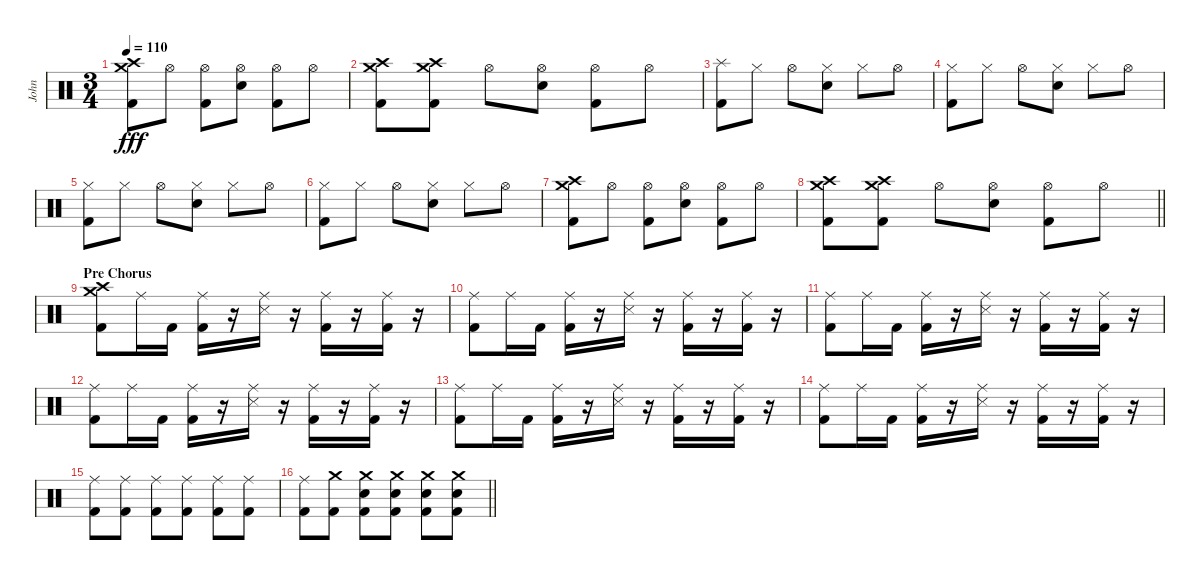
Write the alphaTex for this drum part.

\track ("John" "John") {instrument percussion}
\staff {score}
\articulation defaults
\ts (3 4)
\tempo 110
\clef neutral
\ks c
("Crash medium (hit)" "Crash high (hit)" "Kick (hit) 2").8{dy fff} "Hi-Hat (open)".8 ("Hi-Hat (open)" "Kick (hit) 2").8 ("Hi-Hat (open)" "Electric Snare (hit)").8 ("Hi-Hat (open)" "Kick (hit) 2").8 "Hi-Hat (open)".8 |
("Crash medium (hit)" "Crash high (hit)" "Kick (hit) 2").8 ("Crash medium (hit)" "Crash high (hit)" "Kick (hit) 2").8 "Hi-Hat (open)".8 ("Hi-Hat (open)" "Electric Snare (hit)").8 ("Hi-Hat (open)" "Kick (hit) 2").8 "Hi-Hat (open)".8 |
("Splash (hit)" "Kick (hit) 2").8 "Hi-Hat (closed)".8 "Hi-Hat (open)".8 ("Hi-Hat (closed)" "Electric Snare (hit)").8 "Hi-Hat (closed)".8 "Hi-Hat (open)".8 |
("Hi-Hat (closed)" "Kick (hit) 2").8 "Hi-Hat (closed)".8 "Hi-Hat (open)".8 ("Hi-Hat (closed)" "Electric Snare (hit)").8 "Hi-Hat (closed)".8 "Hi-Hat (open)".8 |
("Hi-Hat (closed)" "Kick (hit) 2").8 "Hi-Hat (closed)".8 "Hi-Hat (open)".8 ("Hi-Hat (closed)" "Electric Snare (hit)").8 "Hi-Hat (closed)".8 "Hi-Hat (open)".8 |
("Hi-Hat (closed)" "Kick (hit) 2").8 "Hi-Hat (closed)".8 "Hi-Hat (open)".8 ("Hi-Hat (closed)" "Electric Snare (hit)").8 "Hi-Hat (closed)".8 "Hi-Hat (open)".8 |
("Crash medium (hit)" "Crash high (hit)" "Kick (hit) 2").8 "Hi-Hat (open)".8 ("Hi-Hat (open)" "Kick (hit) 2").8 ("Hi-Hat (open)" "Electric Snare (hit)").8 ("Hi-Hat (open)" "Kick (hit) 2").8 "Hi-Hat (open)".8 |
\barLineRight lightlight
("Crash medium (hit)" "Crash high (hit)" "Kick (hit) 2").8 ("Crash medium (hit)" "Crash high (hit)" "Kick (hit) 2").8 "Hi-Hat (open)".8 ("Hi-Hat (open)" "Electric Snare (hit)").8 ("Hi-Hat (open)" "Kick (hit) 2").8 "Hi-Hat (open)".8 |
\section ("" "Pre Chorus")
("Crash medium (hit)" "Crash high (hit)" "Kick (hit) 2").8 "Ride (middle)".16 "Kick (hit) 2".16 ("Ride (middle)" "Kick (hit) 2").16 r.16 ("Ride (middle)" "Snare (side stick) 3").16 r.16 ("Ride (middle)" "Kick (hit) 2").16 r.16 ("Ride (middle)" "Kick (hit) 2").16 r.16 |
("Ride (middle)" "Kick (hit) 2").8 "Ride (middle)".16 "Kick (hit) 2".16 ("Ride (middle)" "Kick (hit) 2").16 r.16 ("Ride (middle)" "Snare (side stick) 3").16 r.16 ("Ride (middle)" "Kick (hit) 2").16 r.16 ("Ride (middle)" "Kick (hit) 2").16 r.16 |
("Ride (middle)" "Kick (hit) 2").8 "Ride (middle)".16 "Kick (hit) 2".16 ("Ride (middle)" "Kick (hit) 2").16 r.16 ("Ride (middle)" "Snare (side stick) 3").16 r.16 ("Ride (middle)" "Kick (hit) 2").16 r.16 ("Ride (middle)" "Kick (hit) 2").16 r.16 |
("Ride (middle)" "Kick (hit) 2").8 "Ride (middle)".16 "Kick (hit) 2".16 ("Ride (middle)" "Kick (hit) 2").16 r.16 ("Ride (middle)" "Snare (side stick) 3").16 r.16 ("Ride (middle)" "Kick (hit) 2").16 r.16 ("Ride (middle)" "Kick (hit) 2").16 r.16 |
("Ride (middle)" "Kick (hit) 2").8 "Ride (middle)".16 "Kick (hit) 2".16 ("Ride (middle)" "Kick (hit) 2").16 r.16 ("Ride (middle)" "Snare (side stick) 3").16 r.16 ("Ride (middle)" "Kick (hit) 2").16 r.16 ("Ride (middle)" "Kick (hit) 2").16 r.16 |
("Ride (middle)" "Kick (hit) 2").8 "Ride (middle)".16 "Kick (hit) 2".16 ("Ride (middle)" "Kick (hit) 2").16 r.16 ("Ride (middle)" "Snare (side stick) 3").16 r.16 ("Ride (middle)" "Kick (hit) 2").16 r.16 ("Ride (middle)" "Kick (hit) 2").16 r.16 |
("Ride (middle)" "Kick (hit) 2").8 ("Ride (middle)" "Kick (hit) 2").8 ("Ride (middle)" "Kick (hit) 2").8 ("Ride (middle)" "Kick (hit) 2").8 ("Ride (middle)" "Kick (hit) 2").8 ("Ride (middle)" "Kick (hit) 2").8 |
\barLineRight lightlight
("Ride (middle)" "Kick (hit) 2").8 ("Crash medium (hit)" "Kick (hit) 2").8 ("Crash medium (hit)" "Electric Snare (hit)" "Kick (hit) 2").8 ("Crash medium (hit)" "Electric Snare (hit)" "Kick (hit) 2").8 ("Crash medium (hit)" "Electric Snare (hit)" "Kick (hit) 2").8 ("Crash medium (hit)" "Electric Snare (hit)" "Kick (hit) 2").8
